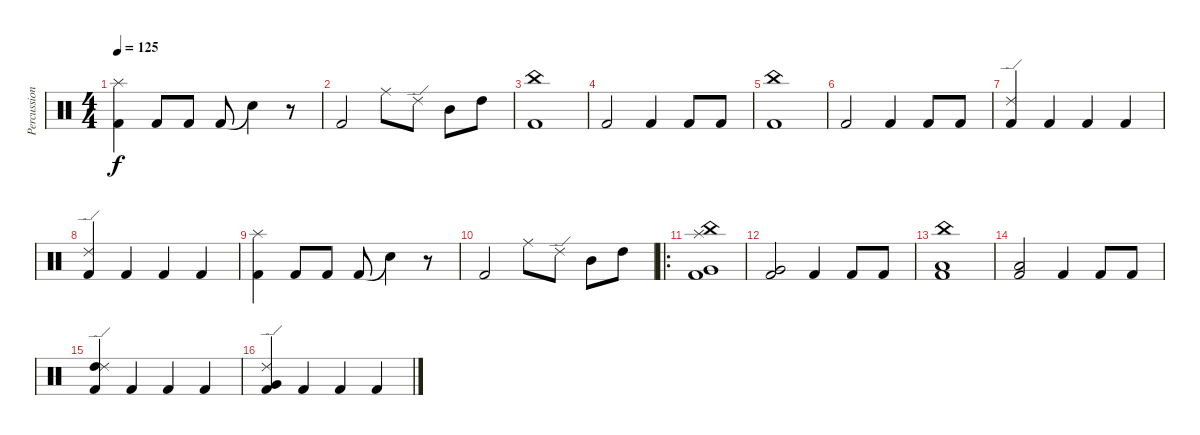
\track ("Percussion" "Percussion") {instrument percussion}
\staff {score}
\articulation defaults
\ts (4 4)
\tempo 125
\clef neutral
\ks c
("Kick (hit) 2" "Splash (hit)").4{dy f} "Kick (hit) 2".8 "Kick (hit) 2".8 "Kick (hit) 2".8 "Snare (hit)"{t}.4 r.8 |
"Kick (hit) 2".2 "Ride (middle)".8 "Ride (edge) 2".8 "Mid Tom (hit)".8 "High Tom (hit)".8 |
("Kick (hit) 2" "China (hit)").1 |
"Kick (hit) 2".2 "Kick (hit) 2".4 "Kick (hit) 2".8 "Kick (hit) 2".8 |
("Kick (hit) 2" "China (hit)").1 |
"Kick (hit) 2".2 "Kick (hit) 2".4 "Kick (hit) 2".8 "Kick (hit) 2".8 |
("Kick (hit) 2" "Ride (edge) 2").4 "Kick (hit) 2".4 "Kick (hit) 2".4 "Kick (hit) 2".4 |
("Kick (hit) 2" "Ride (edge) 2").4 "Kick (hit) 2".4 "Kick (hit) 2".4 "Kick (hit) 2".4 |
("Kick (hit) 2" "Splash (hit)").4 "Kick (hit) 2".8 "Kick (hit) 2".8 "Kick (hit) 2".8 "Snare (hit)"{t}.4 r.8 |
"Kick (hit) 2".2 "Ride (middle)".8 "Ride (edge) 2".8 "Mid Tom (hit)".8 "High Tom (hit)".8 |
\ro
("Kick (hit) 2" "Very Low Tom (hit)" "China (hit)" "Splash (hit)").1 |
("Kick (hit) 2" "Very Low Tom (hit)").2 "Kick (hit) 2".4 "Kick (hit) 2".8 "Kick (hit) 2".8 |
("Kick (hit) 2" "Low Floor Tom (hit)" "China (hit)").1 |
("Kick (hit) 2" "Low Floor Tom (hit)").2 "Kick (hit) 2".4 "Kick (hit) 2".8 "Kick (hit) 2".8 |
("Kick (hit) 2" "High Tom (hit)" "Ride (edge) 2").4 "Kick (hit) 2".4 "Kick (hit) 2".4 "Kick (hit) 2".4 |
("Kick (hit) 2" "Very Low Tom (hit)" "Ride (edge) 2").4 "Kick (hit) 2".4 "Kick (hit) 2".4 "Kick (hit) 2".4
